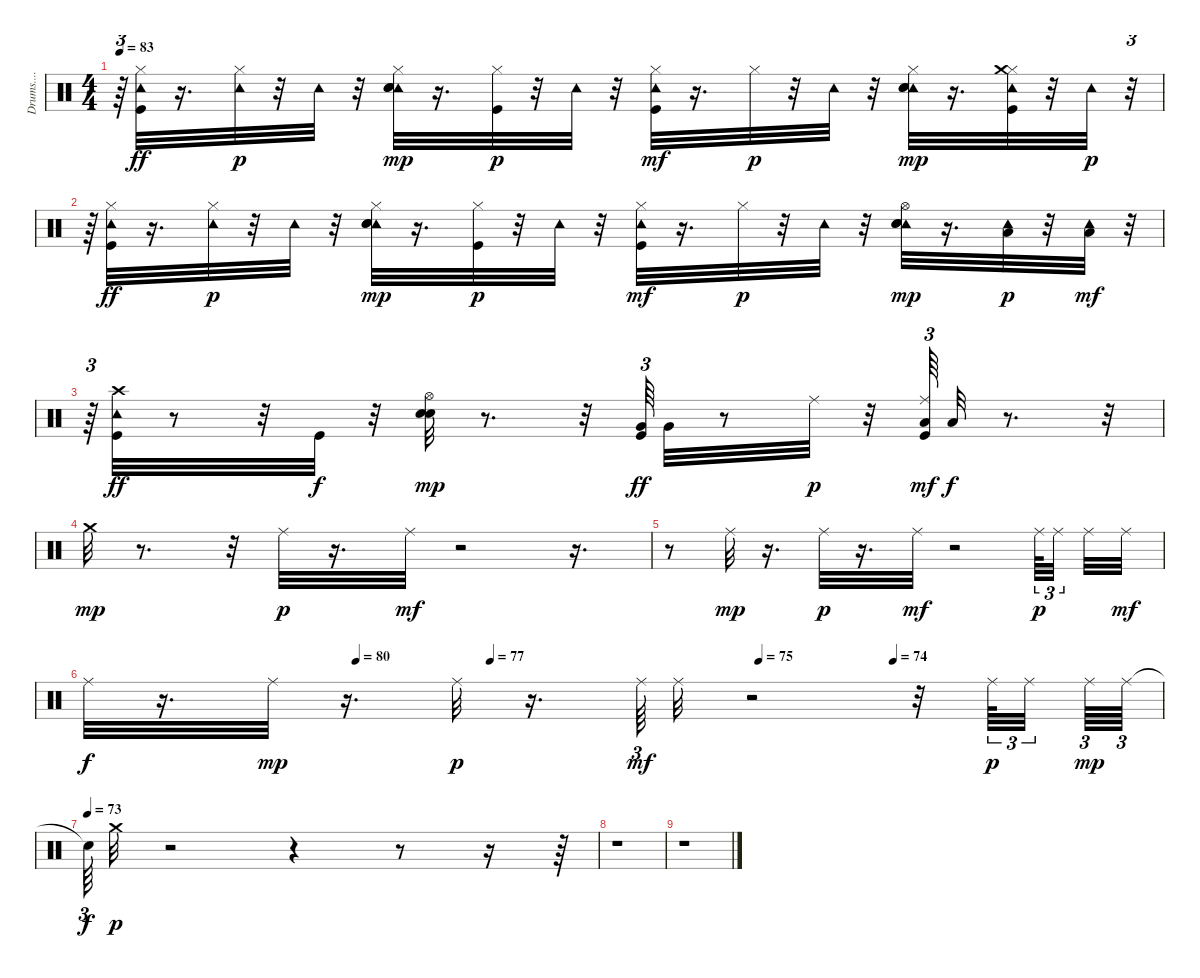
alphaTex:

\track ("Drums....           " "Drums.... ") {instrument percussion}
\staff {score}
\articulation defaults
\ts (4 4)
\tempo 83
\clef neutral
\ks c
r.64{tu (3 2) dy p} ("Kick (hit)" "Tambourine (hit)" "Hi-Hat (closed)").32{dy ff} r.16{d} ("Tambourine (hit)" "Hi-Hat (closed)").32{dy p} r.32 "Tambourine (hit)".32 r.32 ("Tambourine (hit)" "Snare (hit) 2" "Hi-Hat (closed)" "Electric Snare (hit)").32{dy mp} r.16{d} ("Kick (hit)" "Hi-Hat (closed)").32{dy p} r.32 "Tambourine (hit)".32 r.32 ("Kick (hit)" "Tambourine (hit)" "Hi-Hat (closed)").32{dy mf} r.16{d} "Hi-Hat (closed)".32{dy p} r.32 "Tambourine (hit)".32 r.32 ("Tambourine (hit)" "Snare (hit) 2" "Hi-Hat (closed)" "Electric Snare (hit)").32{dy mp} r.16{d} ("Kick (hit)" "Tambourine (hit)" "Hi-Hat (closed)" "Crash medium (hit)").32 r.32 "Tambourine (hit)".32{dy p} r.32{tu (3 2)} |
r.64{tu (3 2)} ("Kick (hit)" "Tambourine (hit)" "Hi-Hat (closed)").32{dy ff} r.16{d} ("Tambourine (hit)" "Hi-Hat (closed)").32{dy p} r.32 "Tambourine (hit)".32 r.32 ("Tambourine (hit)" "Snare (hit) 2" "Hi-Hat (closed)" "Electric Snare (hit)").32{dy mp} r.16{d} ("Kick (hit)" "Hi-Hat (closed)").32{dy p} r.32 "Tambourine (hit)".32 r.32 ("Kick (hit)" "Tambourine (hit)" "Hi-Hat (closed)").32{dy mf} r.16{d} "Hi-Hat (closed)".32{dy p} r.32 "Tambourine (hit)".32 r.32 ("Tambourine (hit)" "Snare (hit) 2" "Hi-Hat (open)" "Electric Snare (hit)").32{dy mp} r.16{d} ("Tambourine (hit)" "Low Tom (hit)").32{dy p} r.32 ("Tambourine (hit)" "Low Tom (hit)").32{dy mf} r.32{tu (3 2)} |
r.64{tu (3 2)} ("Kick (hit)" "Tambourine (hit)" "Crash high (hit)").32{dy ff} r.8 r.32 "Kick (hit)".32{dy f} r.32 ("Snare (hit) 2" "Hi-Hat (open)" "Electric Snare (hit)").32{dy mp} r.8{d} r.32 ("Kick (hit)" "Very Low Tom (hit)").64{tu (3 2) dy ff} "Very Low Tom (hit)".32 r.8 "Ride (middle)".32{dy p} r.32 ("Kick (hit)" "Ride (middle)" "Low Floor Tom (hit)").64{tu (3 2) dy mf} "Low Floor Tom (hit)".32{dy f} r.8{d} r.32 |
"Crash medium (hit)".32{dy mp} r.8{d} r.32 "Ride (middle)".32{dy p} r.16{d} "Ride (middle)".32{dy mf} r.2 r.16{d} |
r.8 "Ride (middle)".32{dy mp} r.16{d} "Ride (middle)".32{dy p} r.16{d} "Ride (middle)".32{dy mf} r.2 "Ride (middle)".64{tu (3 2) dy p} "Ride (middle)".32{tu (3 2) beam splitsecondary} "Ride (middle)".32 "Ride (middle)".32{dy mf} |
\tempo (80 0.25)
\tempo (77 0.375)
\tempo (75 0.625)
\tempo (74 0.75)
"Ride (middle)".32{dy f} r.16{d} "Ride (middle)".32{dy mp} r.16{d} "Ride (middle)".32{dy p} r.16{d} "Ride (middle)".64{tu (3 2) dy mf} "Ride (middle)".32 r.2 r.32 "Ride (middle)".64{tu (3 2) dy p} "Ride (middle)".32{tu (3 2) beam splitsecondary} "Ride (middle)".64{tu (3 2) dy mp} "Ride (middle)".64{tu (3 2)} |
\tempo (73)
"Snare (hit)"{t}.64{tu (3 2) dy f} "Crash medium (hit)".32{dy p} r.2 r.4 r.8 r.16 r.64 |
r.1 |
r.1
